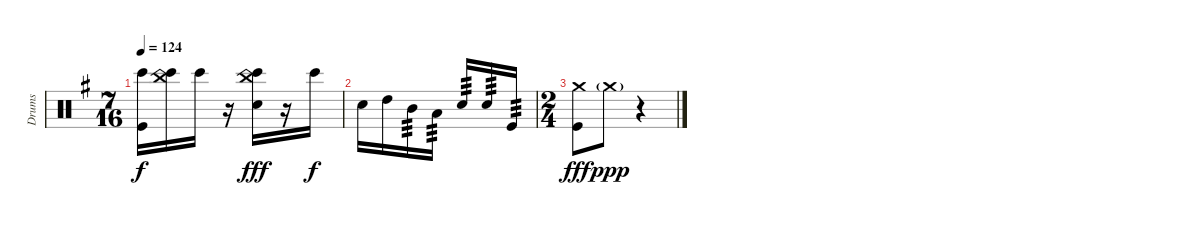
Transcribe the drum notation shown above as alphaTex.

\track ("Drums" "Drums") {instrument percussion}
\staff {score}
\articulation defaults
\ts (7 16)
\tempo 124
\clef neutral
\ks eminor
("Bongo High (hit)" "Kick (hit)").16{dy f} ("China (hit)" "Bongo High (hit)").16 "Bongo High (hit)".16 r.16 ("China (hit)" "Electric Snare (hit)" "Bongo High (hit)").16{dy fff} r.16 "Bongo High (hit)".16{dy f} |
"Electric Snare (hit)".16 "High Tom (hit)".16 "Mid Tom (hit)".16{tp 3} "Low Tom (hit)".16{tp 3} "Electric Snare (hit)".16{tp 3} "Electric Snare (hit)".16{tp 3} "Kick (hit)".16{tp 3} |
\ts (2 4)
("Crash medium (hit)" "Kick (hit)").8{dy fff} "Crash medium (hit)"{g}.8{dy ppp} r.4
